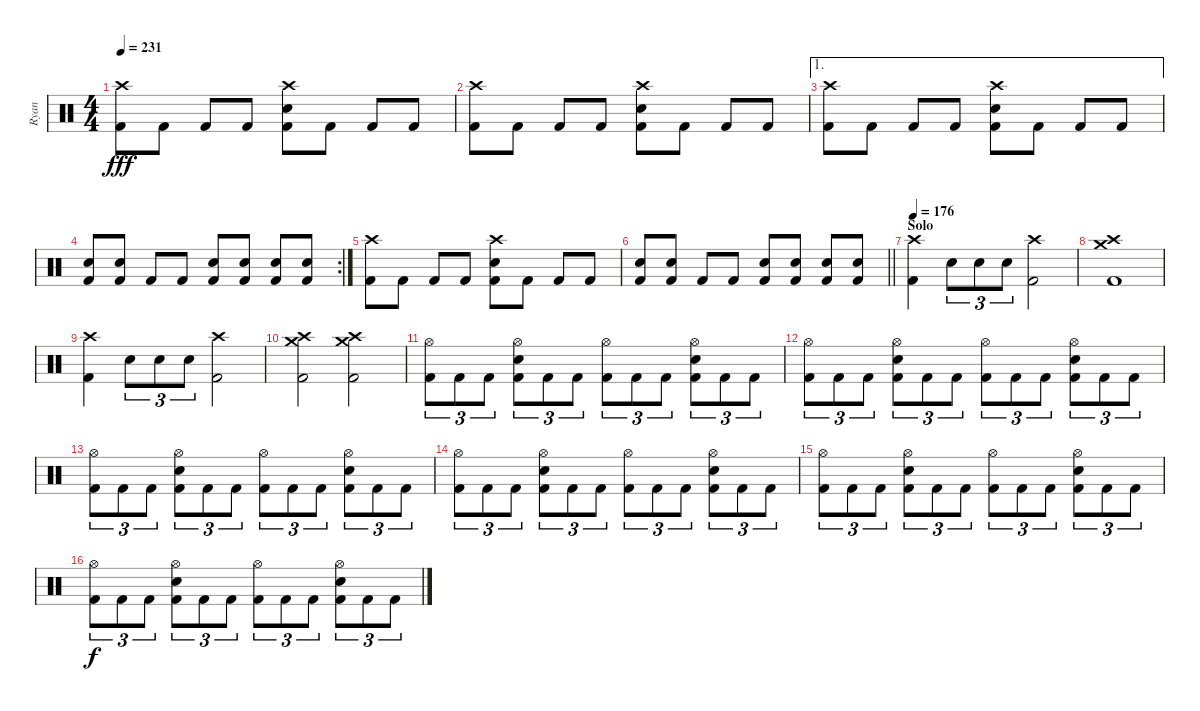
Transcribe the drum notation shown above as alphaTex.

\track ("Ryan" "Ryan") {instrument percussion}
\staff {score}
\articulation defaults
\ts (4 4)
\tempo 231
\clef neutral
\ks c
("Crash high (hit)" "Kick (hit) 2").8{dy fff} "Kick (hit) 2".8 "Kick (hit) 2".8 "Kick (hit) 2".8 ("Crash high (hit)" "Electric Snare (hit)" "Kick (hit) 2").8 "Kick (hit) 2".8 "Kick (hit) 2".8 "Kick (hit) 2".8 |
("Crash high (hit)" "Kick (hit) 2").8 "Kick (hit) 2".8 "Kick (hit) 2".8 "Kick (hit) 2".8 ("Crash high (hit)" "Electric Snare (hit)" "Kick (hit) 2").8 "Kick (hit) 2".8 "Kick (hit) 2".8 "Kick (hit) 2".8 |
\ae 1
("Crash high (hit)" "Kick (hit) 2").8 "Kick (hit) 2".8 "Kick (hit) 2".8 "Kick (hit) 2".8 ("Crash high (hit)" "Electric Snare (hit)" "Kick (hit) 2").8 "Kick (hit) 2".8 "Kick (hit) 2".8 "Kick (hit) 2".8 |
\rc 2
("Electric Snare (hit)" "Kick (hit) 2").8 ("Electric Snare (hit)" "Kick (hit) 2").8 "Kick (hit) 2".8 "Kick (hit) 2".8 ("Electric Snare (hit)" "Kick (hit) 2").8 ("Electric Snare (hit)" "Kick (hit) 2").8 ("Electric Snare (hit)" "Kick (hit) 2").8 ("Electric Snare (hit)" "Kick (hit) 2").8 |
("Crash high (hit)" "Kick (hit) 2").8 "Kick (hit) 2".8 "Kick (hit) 2".8 "Kick (hit) 2".8 ("Crash high (hit)" "Electric Snare (hit)" "Kick (hit) 2").8 "Kick (hit) 2".8 "Kick (hit) 2".8 "Kick (hit) 2".8 |
\barLineRight lightlight
("Electric Snare (hit)" "Kick (hit) 2").8 ("Electric Snare (hit)" "Kick (hit) 2").8 "Kick (hit) 2".8 "Kick (hit) 2".8 ("Electric Snare (hit)" "Kick (hit) 2").8 ("Electric Snare (hit)" "Kick (hit) 2").8 ("Electric Snare (hit)" "Kick (hit) 2").8 ("Electric Snare (hit)" "Kick (hit) 2").8 |
\section ("" "Solo")
\tempo 176
("Crash high (hit)" "Kick (hit) 2").4 "Electric Snare (hit)".8{tu (3 2)} "Electric Snare (hit)".8{tu (3 2)} "Electric Snare (hit)".8{tu (3 2)} ("Crash high (hit)" "Kick (hit) 2").2 |
("Crash high (hit)" "Crash medium (hit)" "Kick (hit) 2").1 |
("Crash high (hit)" "Kick (hit) 2").4 "Electric Snare (hit)".8{tu (3 2)} "Electric Snare (hit)".8{tu (3 2)} "Electric Snare (hit)".8{tu (3 2)} ("Crash high (hit)" "Kick (hit) 2").2 |
("Crash high (hit)" "Crash medium (hit)" "Kick (hit) 2").2 ("Crash high (hit)" "Crash medium (hit)" "Kick (hit) 2").2 |
("Hi-Hat (open)" "Kick (hit) 2").8{tu (3 2)} "Kick (hit) 2".8{tu (3 2)} "Kick (hit) 2".8{tu (3 2)} ("Hi-Hat (open)" "Electric Snare (hit)" "Kick (hit) 2").8{tu (3 2)} "Kick (hit) 2".8{tu (3 2)} "Kick (hit) 2".8{tu (3 2)} ("Hi-Hat (open)" "Kick (hit) 2").8{tu (3 2)} "Kick (hit) 2".8{tu (3 2)} "Kick (hit) 2".8{tu (3 2)} ("Hi-Hat (open)" "Electric Snare (hit)" "Kick (hit) 2").8{tu (3 2)} "Kick (hit) 2".8{tu (3 2)} "Kick (hit) 2".8{tu (3 2)} |
("Hi-Hat (open)" "Kick (hit) 2").8{tu (3 2)} "Kick (hit) 2".8{tu (3 2)} "Kick (hit) 2".8{tu (3 2)} ("Hi-Hat (open)" "Electric Snare (hit)" "Kick (hit) 2").8{tu (3 2)} "Kick (hit) 2".8{tu (3 2)} "Kick (hit) 2".8{tu (3 2)} ("Hi-Hat (open)" "Kick (hit) 2").8{tu (3 2)} "Kick (hit) 2".8{tu (3 2)} "Kick (hit) 2".8{tu (3 2)} ("Hi-Hat (open)" "Electric Snare (hit)" "Kick (hit) 2").8{tu (3 2)} "Kick (hit) 2".8{tu (3 2)} "Kick (hit) 2".8{tu (3 2)} |
("Hi-Hat (open)" "Kick (hit) 2").8{tu (3 2)} "Kick (hit) 2".8{tu (3 2)} "Kick (hit) 2".8{tu (3 2)} ("Hi-Hat (open)" "Electric Snare (hit)" "Kick (hit) 2").8{tu (3 2)} "Kick (hit) 2".8{tu (3 2)} "Kick (hit) 2".8{tu (3 2)} ("Hi-Hat (open)" "Kick (hit) 2").8{tu (3 2)} "Kick (hit) 2".8{tu (3 2)} "Kick (hit) 2".8{tu (3 2)} ("Hi-Hat (open)" "Electric Snare (hit)" "Kick (hit) 2").8{tu (3 2)} "Kick (hit) 2".8{tu (3 2)} "Kick (hit) 2".8{tu (3 2)} |
("Hi-Hat (open)" "Kick (hit) 2").8{tu (3 2)} "Kick (hit) 2".8{tu (3 2)} "Kick (hit) 2".8{tu (3 2)} ("Hi-Hat (open)" "Electric Snare (hit)" "Kick (hit) 2").8{tu (3 2)} "Kick (hit) 2".8{tu (3 2)} "Kick (hit) 2".8{tu (3 2)} ("Hi-Hat (open)" "Kick (hit) 2").8{tu (3 2)} "Kick (hit) 2".8{tu (3 2)} "Kick (hit) 2".8{tu (3 2)} ("Hi-Hat (open)" "Electric Snare (hit)" "Kick (hit) 2").8{tu (3 2)} "Kick (hit) 2".8{tu (3 2)} "Kick (hit) 2".8{tu (3 2)} |
("Hi-Hat (open)" "Kick (hit) 2").8{tu (3 2)} "Kick (hit) 2".8{tu (3 2)} "Kick (hit) 2".8{tu (3 2)} ("Hi-Hat (open)" "Electric Snare (hit)" "Kick (hit) 2").8{tu (3 2)} "Kick (hit) 2".8{tu (3 2)} "Kick (hit) 2".8{tu (3 2)} ("Hi-Hat (open)" "Kick (hit) 2").8{tu (3 2)} "Kick (hit) 2".8{tu (3 2)} "Kick (hit) 2".8{tu (3 2)} ("Hi-Hat (open)" "Electric Snare (hit)" "Kick (hit) 2").8{tu (3 2)} "Kick (hit) 2".8{tu (3 2)} "Kick (hit) 2".8{tu (3 2)} |
("Hi-Hat (open)" "Kick (hit) 2").8{tu (3 2) dy f} "Kick (hit) 2".8{tu (3 2)} "Kick (hit) 2".8{tu (3 2)} ("Hi-Hat (open)" "Electric Snare (hit)" "Kick (hit) 2").8{tu (3 2)} "Kick (hit) 2".8{tu (3 2)} "Kick (hit) 2".8{tu (3 2)} ("Hi-Hat (open)" "Kick (hit) 2").8{tu (3 2)} "Kick (hit) 2".8{tu (3 2)} "Kick (hit) 2".8{tu (3 2)} ("Hi-Hat (open)" "Electric Snare (hit)" "Kick (hit) 2").8{tu (3 2)} "Kick (hit) 2".8{tu (3 2)} "Kick (hit) 2".8{tu (3 2)}
